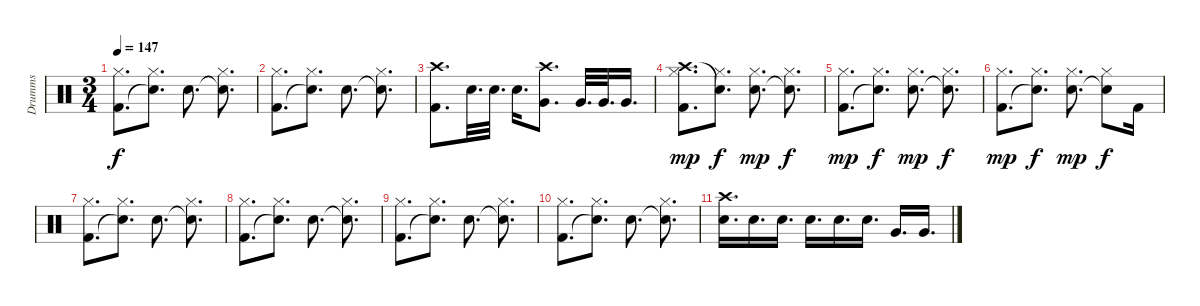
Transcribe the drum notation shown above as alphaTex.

\track ("Drumms" "Drumms") {instrument percussion}
\staff {score}
\articulation defaults
\ts (3 4)
\tempo 147
\clef neutral
\ks c
("Kick (hit) 2" "Hi-Hat (closed)").8{d dy f} ("Snare (hit)"{t} "Hi-Hat (closed)").8{d} "Electric Snare (hit)".8{d} ("Snare (hit)"{t} "Hi-Hat (closed)").8{d} |
("Kick (hit) 2" "Hi-Hat (closed)").8{d} ("Snare (hit)"{t} "Hi-Hat (closed)").8{d} "Electric Snare (hit)".8{d} ("Snare (hit)"{t} "Hi-Hat (closed)").8{d} |
("Crash high (hit)" "Kick (hit) 2").8{d} "Electric Snare (hit)".32{d} "Electric Snare (hit)".32{d} "Electric Snare (hit)".16{d} ("Crash high (hit)" "Very Low Tom (hit)").8{d} "Very Low Tom (hit)".32{d} "Very Low Tom (hit)".32{d} "Very Low Tom (hit)".16{d} |
\section ("" "")
("Crash high (hit)" "Kick (hit) 2" "Hi-Hat (closed)").8{d dy mp volume 11} ("Snare (hit)"{t} "Hi-Hat (closed)").8{d dy f} ("Electric Snare (hit)" "Hi-Hat (closed)").8{d dy mp} ("Snare (hit)"{t} "Hi-Hat (closed)").8{d dy f} |
("Kick (hit) 2" "Hi-Hat (closed)").8{d dy mp volume 10} ("Snare (hit)"{t} "Hi-Hat (closed)").8{d dy f} ("Electric Snare (hit)" "Hi-Hat (closed)").8{d dy mp} ("Snare (hit)"{t} "Hi-Hat (closed)").8{d dy f} |
("Kick (hit) 2" "Hi-Hat (closed)").8{d dy mp volume 9} ("Snare (hit)"{t} "Hi-Hat (closed)").8{d dy f} ("Electric Snare (hit)" "Hi-Hat (closed)").8{d dy mp} ("Snare (hit)"{t} "Hi-Hat (closed)").8{dy f} "Kick (hit) 2".16 |
("Kick (hit) 2" "Hi-Hat (closed)").8{d volume 8} ("Snare (hit)"{t} "Hi-Hat (closed)").8{d} "Electric Snare (hit)".8{d} ("Snare (hit)"{t} "Hi-Hat (closed)").8{d} |
("Kick (hit) 2" "Hi-Hat (closed)").8{d volume 7} ("Snare (hit)"{t} "Hi-Hat (closed)").8{d} "Electric Snare (hit)".8{d} ("Snare (hit)"{t} "Hi-Hat (closed)").8{d} |
("Kick (hit) 2" "Hi-Hat (closed)").8{d volume 5} ("Snare (hit)"{t} "Hi-Hat (closed)").8{d} "Electric Snare (hit)".8{d} ("Snare (hit)"{t} "Hi-Hat (closed)").8{d} |
("Kick (hit) 2" "Hi-Hat (closed)").8{d volume 3} ("Snare (hit)"{t} "Hi-Hat (closed)").8{d} "Electric Snare (hit)".8{d} ("Snare (hit)"{t} "Hi-Hat (closed)").8{d} |
("Crash high (hit)" "Electric Snare (hit)").16{d volume 2} "Electric Snare (hit)".16{d} "Electric Snare (hit)".16{d} "Electric Snare (hit)".16{d} "Electric Snare (hit)".16{d} "Electric Snare (hit)".16{d} "Very Low Tom (hit)".16{d} "Very Low Tom (hit)".16{d}
